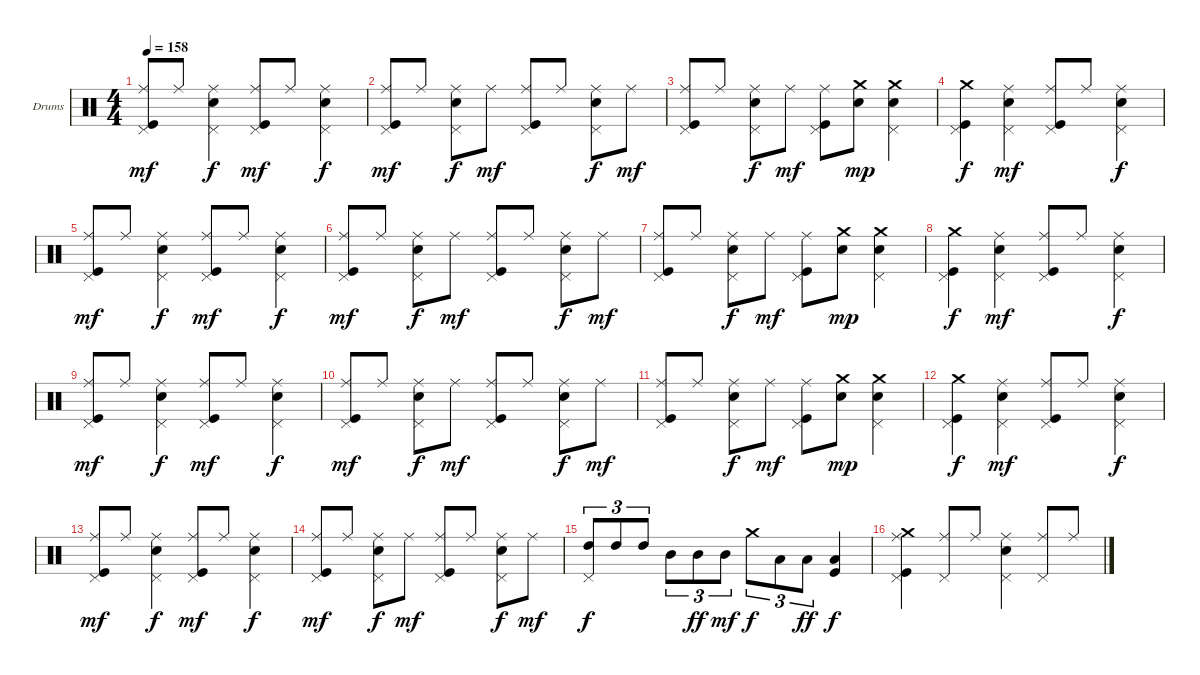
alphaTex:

\defaultSystemsLayout 4
\bracketExtendMode nobrackets
\firstSystemTrackNameOrientation horizontal
\otherSystemsTrackNameOrientation horizontal
\track ("Ударные" "Drums") {instrument percussion}
\staff {score}
\articulation defaults
\ts (4 4)
\tempo 158
\clef neutral
\ks c
("Ride (middle)" "Kick (hit)" "Pedal Hi-Hat (hit)").8{dy mf} "Ride (middle)".8 ("Snare (hit) 2" "Pedal Hi-Hat (hit)" "Ride (middle)").4{dy f} ("Ride (middle)" "Kick (hit)" "Pedal Hi-Hat (hit)").8{dy mf} "Ride (middle)".8 ("Snare (hit) 2" "Pedal Hi-Hat (hit)" "Ride (middle)").4{dy f} |
("Ride (middle)" "Kick (hit)" "Pedal Hi-Hat (hit)").8{dy mf} "Ride (middle)".8 ("Snare (hit) 2" "Pedal Hi-Hat (hit)" "Ride (middle)").8{dy f} "Ride (middle)".8{dy mf} ("Ride (middle)" "Kick (hit)" "Pedal Hi-Hat (hit)").8 "Ride (middle)".8 ("Snare (hit) 2" "Pedal Hi-Hat (hit)" "Ride (middle)").8{dy f} "Ride (middle)".8{dy mf} |
("Ride (middle)" "Kick (hit)" "Pedal Hi-Hat (hit)").8 "Ride (middle)".8 ("Snare (hit) 2" "Pedal Hi-Hat (hit)" "Ride (middle)").8{dy f} "Ride (middle)".8{dy mf} ("Ride (middle)" "Kick (hit)" "Pedal Hi-Hat (hit)").8 ("Crash medium (hit)" "Snare (hit) 2").8{dy mp} ("Crash medium (hit)" "Snare (hit) 2" "Pedal Hi-Hat (hit)").4 |
("Kick (hit)" "Crash medium (hit)" "Pedal Hi-Hat (hit)").4{dy f} ("Ride (middle)" "Snare (hit) 2" "Pedal Hi-Hat (hit)").4{dy mf} ("Ride (middle)" "Kick (hit)" "Pedal Hi-Hat (hit)").8 "Ride (middle)".8 ("Snare (hit) 2" "Pedal Hi-Hat (hit)" "Ride (middle)").4{dy f} |
("Ride (middle)" "Kick (hit)" "Pedal Hi-Hat (hit)").8{dy mf} "Ride (middle)".8 ("Snare (hit) 2" "Pedal Hi-Hat (hit)" "Ride (middle)").4{dy f} ("Ride (middle)" "Kick (hit)" "Pedal Hi-Hat (hit)").8{dy mf} "Ride (middle)".8 ("Snare (hit) 2" "Pedal Hi-Hat (hit)" "Ride (middle)").4{dy f} |
("Ride (middle)" "Kick (hit)" "Pedal Hi-Hat (hit)").8{dy mf} "Ride (middle)".8 ("Snare (hit) 2" "Pedal Hi-Hat (hit)" "Ride (middle)").8{dy f} "Ride (middle)".8{dy mf} ("Ride (middle)" "Kick (hit)" "Pedal Hi-Hat (hit)").8 "Ride (middle)".8 ("Snare (hit) 2" "Pedal Hi-Hat (hit)" "Ride (middle)").8{dy f} "Ride (middle)".8{dy mf} |
("Ride (middle)" "Kick (hit)" "Pedal Hi-Hat (hit)").8 "Ride (middle)".8 ("Snare (hit) 2" "Pedal Hi-Hat (hit)" "Ride (middle)").8{dy f} "Ride (middle)".8{dy mf} ("Ride (middle)" "Kick (hit)" "Pedal Hi-Hat (hit)").8 ("Crash medium (hit)" "Snare (hit) 2").8{dy mp} ("Crash medium (hit)" "Snare (hit) 2" "Pedal Hi-Hat (hit)").4 |
("Kick (hit)" "Crash medium (hit)" "Pedal Hi-Hat (hit)").4{dy f} ("Ride (middle)" "Snare (hit) 2" "Pedal Hi-Hat (hit)").4{dy mf} ("Ride (middle)" "Kick (hit)" "Pedal Hi-Hat (hit)").8 "Ride (middle)".8 ("Snare (hit) 2" "Pedal Hi-Hat (hit)" "Ride (middle)").4{dy f} |
("Ride (middle)" "Kick (hit)" "Pedal Hi-Hat (hit)").8{dy mf} "Ride (middle)".8 ("Snare (hit) 2" "Pedal Hi-Hat (hit)" "Ride (middle)").4{dy f} ("Ride (middle)" "Kick (hit)" "Pedal Hi-Hat (hit)").8{dy mf} "Ride (middle)".8 ("Snare (hit) 2" "Pedal Hi-Hat (hit)" "Ride (middle)").4{dy f} |
("Ride (middle)" "Kick (hit)" "Pedal Hi-Hat (hit)").8{dy mf} "Ride (middle)".8 ("Snare (hit) 2" "Pedal Hi-Hat (hit)" "Ride (middle)").8{dy f} "Ride (middle)".8{dy mf} ("Ride (middle)" "Kick (hit)" "Pedal Hi-Hat (hit)").8 "Ride (middle)".8 ("Snare (hit) 2" "Pedal Hi-Hat (hit)" "Ride (middle)").8{dy f} "Ride (middle)".8{dy mf} |
("Ride (middle)" "Kick (hit)" "Pedal Hi-Hat (hit)").8 "Ride (middle)".8 ("Snare (hit) 2" "Pedal Hi-Hat (hit)" "Ride (middle)").8{dy f} "Ride (middle)".8{dy mf} ("Ride (middle)" "Kick (hit)" "Pedal Hi-Hat (hit)").8 ("Crash medium (hit)" "Snare (hit) 2").8{dy mp} ("Crash medium (hit)" "Snare (hit) 2" "Pedal Hi-Hat (hit)").4 |
("Kick (hit)" "Crash medium (hit)" "Pedal Hi-Hat (hit)").4{dy f} ("Ride (middle)" "Snare (hit) 2" "Pedal Hi-Hat (hit)").4{dy mf} ("Ride (middle)" "Kick (hit)" "Pedal Hi-Hat (hit)").8 "Ride (middle)".8 ("Snare (hit) 2" "Pedal Hi-Hat (hit)" "Ride (middle)").4{dy f} |
("Ride (middle)" "Kick (hit)" "Pedal Hi-Hat (hit)").8{dy mf} "Ride (middle)".8 ("Snare (hit) 2" "Pedal Hi-Hat (hit)" "Ride (middle)").4{dy f} ("Ride (middle)" "Kick (hit)" "Pedal Hi-Hat (hit)").8{dy mf} "Ride (middle)".8 ("Snare (hit) 2" "Pedal Hi-Hat (hit)" "Ride (middle)").4{dy f} |
("Ride (middle)" "Kick (hit)" "Pedal Hi-Hat (hit)").8{dy mf} "Ride (middle)".8 ("Snare (hit) 2" "Pedal Hi-Hat (hit)" "Ride (middle)").8{dy f} "Ride (middle)".8{dy mf} ("Ride (middle)" "Kick (hit)" "Pedal Hi-Hat (hit)").8 "Ride (middle)".8 ("Snare (hit) 2" "Pedal Hi-Hat (hit)" "Ride (middle)").8{dy f} "Ride (middle)".8{dy mf} |
("High Tom (hit)" "Pedal Hi-Hat (hit)").8{tu (3 2) dy f} "High Tom (hit)".8{tu (3 2)} "High Tom (hit)".8{tu (3 2)} "Mid Tom (hit)".8{tu (3 2)} "Mid Tom (hit)".8{tu (3 2) dy ff} "Mid Tom (hit)".8{tu (3 2) dy mf} "Crash medium (hit)".8{tu (3 2) dy f} "Low Tom (hit)".8{tu (3 2)} "Low Tom (hit)".8{tu (3 2) dy ff} ("Low Tom (hit)" "Kick (hit)").4{dy f} |
("Crash medium (hit)" "Kick (hit)" "Ride (middle)" "Pedal Hi-Hat (hit)").4 ("Ride (middle)" "Pedal Hi-Hat (hit)").8 "Ride (middle)".8 ("Ride (middle)" "Snare (hit) 2" "Pedal Hi-Hat (hit)").4 ("Ride (middle)" "Pedal Hi-Hat (hit)").8 "Ride (middle)".8
